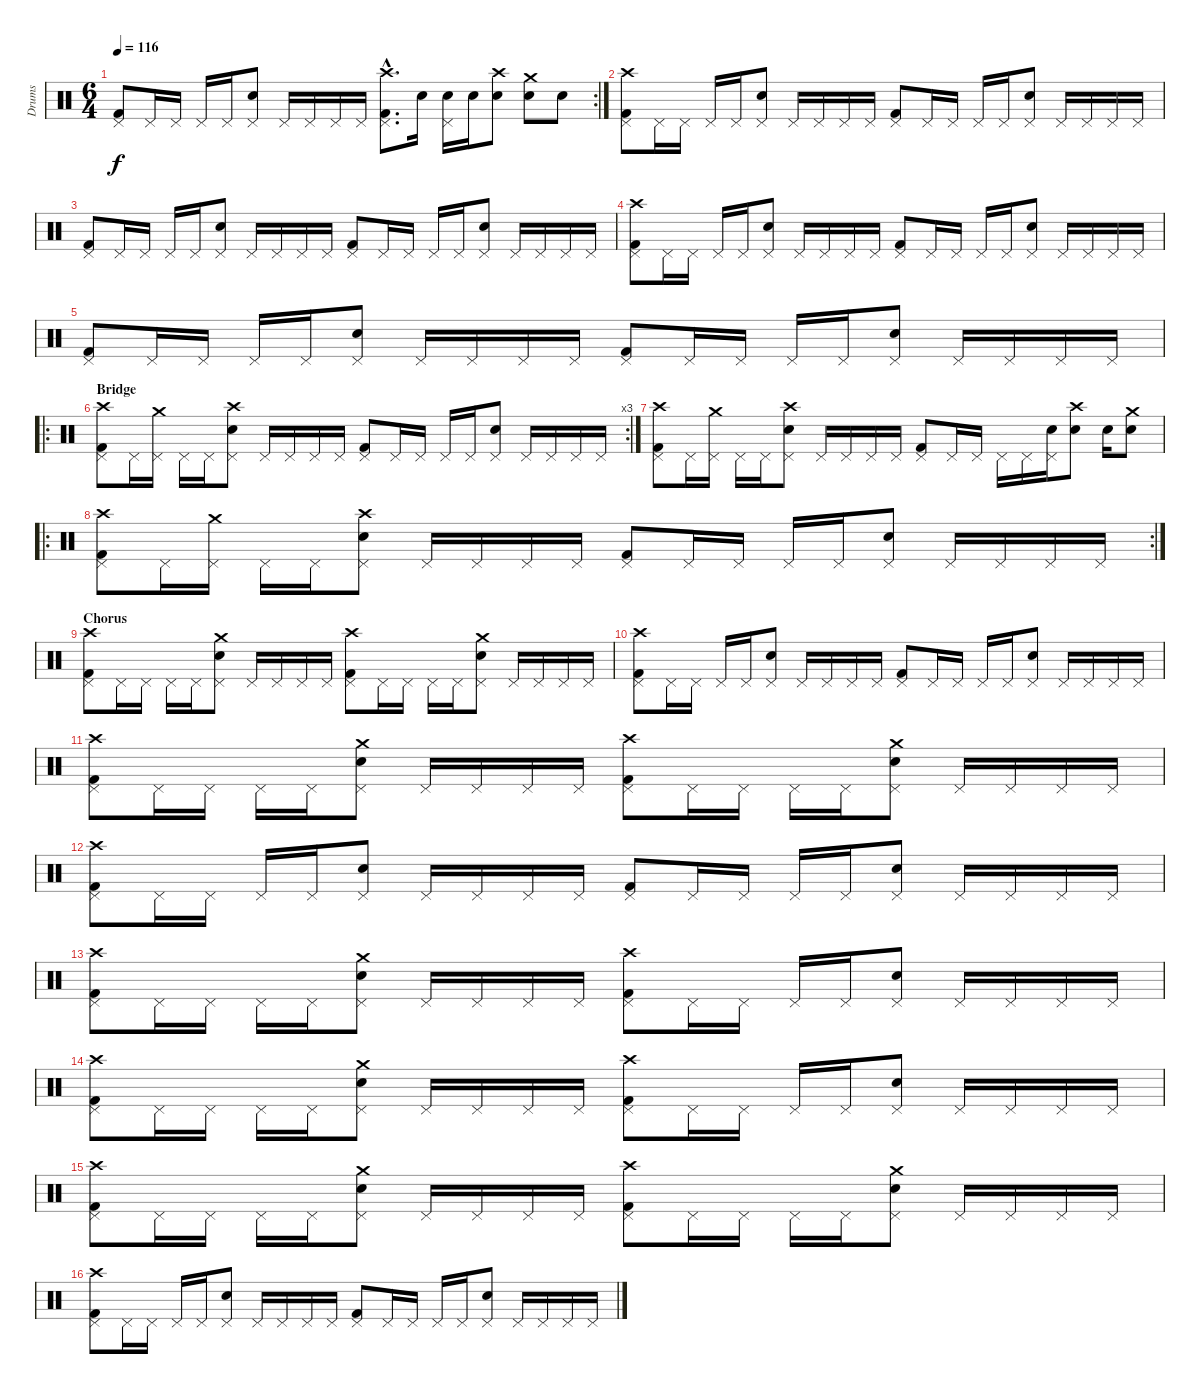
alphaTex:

\track ("Drums" "Drums") {instrument percussion}
\staff {score}
\articulation defaults
\rc 2
\ts (6 4)
\tempo 116
\clef neutral
\ks c
("Kick (hit) 2" "Pedal Hi-Hat (hit)").8{dy f} "Pedal Hi-Hat (hit)".16 "Pedal Hi-Hat (hit)".16 "Pedal Hi-Hat (hit)".16 "Pedal Hi-Hat (hit)".16 ("Snare (hit) 2" "Pedal Hi-Hat (hit)").8 "Pedal Hi-Hat (hit)".16 "Pedal Hi-Hat (hit)".16 "Pedal Hi-Hat (hit)".16 "Pedal Hi-Hat (hit)".16 ("Kick (hit) 2"{hac} "Pedal Hi-Hat (hit)"{hac} "Crash high (hit)"{hac}).8{d} "Snare (hit) 2".16 ("Snare (hit) 2" "Pedal Hi-Hat (hit)").16 "Snare (hit) 2".16 ("Snare (hit) 2" "Crash high (hit)").8 ("Snare (hit) 2" "Crash medium (hit)").8 "Snare (hit) 2".8 |
("Kick (hit) 2" "Pedal Hi-Hat (hit)" "Crash high (hit)").8 "Pedal Hi-Hat (hit)".16 "Pedal Hi-Hat (hit)".16 "Pedal Hi-Hat (hit)".16 "Pedal Hi-Hat (hit)".16 ("Snare (hit) 2" "Pedal Hi-Hat (hit)").8 "Pedal Hi-Hat (hit)".16 "Pedal Hi-Hat (hit)".16 "Pedal Hi-Hat (hit)".16 "Pedal Hi-Hat (hit)".16 ("Kick (hit) 2" "Pedal Hi-Hat (hit)").8 "Pedal Hi-Hat (hit)".16 "Pedal Hi-Hat (hit)".16 "Pedal Hi-Hat (hit)".16 "Pedal Hi-Hat (hit)".16 ("Snare (hit) 2" "Pedal Hi-Hat (hit)").8 "Pedal Hi-Hat (hit)".16 "Pedal Hi-Hat (hit)".16 "Pedal Hi-Hat (hit)".16 "Pedal Hi-Hat (hit)".16 |
("Kick (hit) 2" "Pedal Hi-Hat (hit)").8 "Pedal Hi-Hat (hit)".16 "Pedal Hi-Hat (hit)".16 "Pedal Hi-Hat (hit)".16 "Pedal Hi-Hat (hit)".16 ("Snare (hit) 2" "Pedal Hi-Hat (hit)").8 "Pedal Hi-Hat (hit)".16 "Pedal Hi-Hat (hit)".16 "Pedal Hi-Hat (hit)".16 "Pedal Hi-Hat (hit)".16 ("Kick (hit) 2" "Pedal Hi-Hat (hit)").8 "Pedal Hi-Hat (hit)".16 "Pedal Hi-Hat (hit)".16 "Pedal Hi-Hat (hit)".16 "Pedal Hi-Hat (hit)".16 ("Snare (hit) 2" "Pedal Hi-Hat (hit)").8 "Pedal Hi-Hat (hit)".16 "Pedal Hi-Hat (hit)".16 "Pedal Hi-Hat (hit)".16 "Pedal Hi-Hat (hit)".16 |
("Kick (hit) 2" "Pedal Hi-Hat (hit)" "Crash high (hit)").8 "Pedal Hi-Hat (hit)".16 "Pedal Hi-Hat (hit)".16 "Pedal Hi-Hat (hit)".16 "Pedal Hi-Hat (hit)".16 ("Snare (hit) 2" "Pedal Hi-Hat (hit)").8 "Pedal Hi-Hat (hit)".16 "Pedal Hi-Hat (hit)".16 "Pedal Hi-Hat (hit)".16 "Pedal Hi-Hat (hit)".16 ("Kick (hit) 2" "Pedal Hi-Hat (hit)").8 "Pedal Hi-Hat (hit)".16 "Pedal Hi-Hat (hit)".16 "Pedal Hi-Hat (hit)".16 "Pedal Hi-Hat (hit)".16 ("Snare (hit) 2" "Pedal Hi-Hat (hit)").8 "Pedal Hi-Hat (hit)".16 "Pedal Hi-Hat (hit)".16 "Pedal Hi-Hat (hit)".16 "Pedal Hi-Hat (hit)".16 |
("Kick (hit) 2" "Pedal Hi-Hat (hit)").8 "Pedal Hi-Hat (hit)".16 "Pedal Hi-Hat (hit)".16 "Pedal Hi-Hat (hit)".16 "Pedal Hi-Hat (hit)".16 ("Snare (hit) 2" "Pedal Hi-Hat (hit)").8 "Pedal Hi-Hat (hit)".16 "Pedal Hi-Hat (hit)".16 "Pedal Hi-Hat (hit)".16 "Pedal Hi-Hat (hit)".16 ("Kick (hit) 2" "Pedal Hi-Hat (hit)").8 "Pedal Hi-Hat (hit)".16 "Pedal Hi-Hat (hit)".16 "Pedal Hi-Hat (hit)".16 "Pedal Hi-Hat (hit)".16 ("Snare (hit) 2" "Pedal Hi-Hat (hit)").8 "Pedal Hi-Hat (hit)".16 "Pedal Hi-Hat (hit)".16 "Pedal Hi-Hat (hit)".16 "Pedal Hi-Hat (hit)".16 |
\ro
\rc 3
\section ("" "Bridge")
("Kick (hit) 2" "Pedal Hi-Hat (hit)" "Crash high (hit)").8 "Pedal Hi-Hat (hit)".16 ("Pedal Hi-Hat (hit)" "Crash medium (hit)").16 "Pedal Hi-Hat (hit)".16 "Pedal Hi-Hat (hit)".16 ("Snare (hit) 2" "Pedal Hi-Hat (hit)" "Crash high (hit)").8 "Pedal Hi-Hat (hit)".16 "Pedal Hi-Hat (hit)".16 "Pedal Hi-Hat (hit)".16 "Pedal Hi-Hat (hit)".16 ("Kick (hit) 2" "Pedal Hi-Hat (hit)").8 "Pedal Hi-Hat (hit)".16 "Pedal Hi-Hat (hit)".16 "Pedal Hi-Hat (hit)".16 "Pedal Hi-Hat (hit)".16 ("Snare (hit) 2" "Pedal Hi-Hat (hit)").8 "Pedal Hi-Hat (hit)".16 "Pedal Hi-Hat (hit)".16 "Pedal Hi-Hat (hit)".16 "Pedal Hi-Hat (hit)".16 |
("Kick (hit) 2" "Pedal Hi-Hat (hit)" "Crash high (hit)").8 "Pedal Hi-Hat (hit)".16 ("Pedal Hi-Hat (hit)" "Crash medium (hit)").16 "Pedal Hi-Hat (hit)".16 "Pedal Hi-Hat (hit)".16 ("Snare (hit) 2" "Pedal Hi-Hat (hit)" "Crash high (hit)").8 "Pedal Hi-Hat (hit)".16 "Pedal Hi-Hat (hit)".16 "Pedal Hi-Hat (hit)".16 "Pedal Hi-Hat (hit)".16 ("Kick (hit) 2" "Pedal Hi-Hat (hit)").8 "Pedal Hi-Hat (hit)".16 "Pedal Hi-Hat (hit)".16 "Pedal Hi-Hat (hit)".16 "Pedal Hi-Hat (hit)".16 ("Snare (hit) 2" "Pedal Hi-Hat (hit)").16 ("Snare (hit) 2" "Crash high (hit)").8 "Snare (hit) 2".16 ("Snare (hit) 2" "Crash medium (hit)").8 |
\ro
\rc 2
("Kick (hit) 2" "Pedal Hi-Hat (hit)" "Crash high (hit)").8 "Pedal Hi-Hat (hit)".16 ("Pedal Hi-Hat (hit)" "Crash medium (hit)").16 "Pedal Hi-Hat (hit)".16 "Pedal Hi-Hat (hit)".16 ("Snare (hit) 2" "Pedal Hi-Hat (hit)" "Crash high (hit)").8 "Pedal Hi-Hat (hit)".16 "Pedal Hi-Hat (hit)".16 "Pedal Hi-Hat (hit)".16 "Pedal Hi-Hat (hit)".16 ("Kick (hit) 2" "Pedal Hi-Hat (hit)").8 "Pedal Hi-Hat (hit)".16 "Pedal Hi-Hat (hit)".16 "Pedal Hi-Hat (hit)".16 "Pedal Hi-Hat (hit)".16 ("Snare (hit) 2" "Pedal Hi-Hat (hit)").8 "Pedal Hi-Hat (hit)".16 "Pedal Hi-Hat (hit)".16 "Pedal Hi-Hat (hit)".16 "Pedal Hi-Hat (hit)".16 |
\section ("" "Chorus")
("Kick (hit) 2" "Pedal Hi-Hat (hit)" "Crash high (hit)").8 "Pedal Hi-Hat (hit)".16 "Pedal Hi-Hat (hit)".16 "Pedal Hi-Hat (hit)".16 "Pedal Hi-Hat (hit)".16 ("Snare (hit) 2" "Pedal Hi-Hat (hit)" "Crash medium (hit)").8 "Pedal Hi-Hat (hit)".16 "Pedal Hi-Hat (hit)".16 "Pedal Hi-Hat (hit)".16 "Pedal Hi-Hat (hit)".16 ("Kick (hit) 2" "Pedal Hi-Hat (hit)" "Crash high (hit)").8 "Pedal Hi-Hat (hit)".16 "Pedal Hi-Hat (hit)".16 "Pedal Hi-Hat (hit)".16 "Pedal Hi-Hat (hit)".16 ("Snare (hit) 2" "Pedal Hi-Hat (hit)" "Crash medium (hit)").8 "Pedal Hi-Hat (hit)".16 "Pedal Hi-Hat (hit)".16 "Pedal Hi-Hat (hit)".16 "Pedal Hi-Hat (hit)".16 |
("Kick (hit) 2" "Pedal Hi-Hat (hit)" "Crash high (hit)").8 "Pedal Hi-Hat (hit)".16 "Pedal Hi-Hat (hit)".16 "Pedal Hi-Hat (hit)".16 "Pedal Hi-Hat (hit)".16 ("Snare (hit) 2" "Pedal Hi-Hat (hit)").8 "Pedal Hi-Hat (hit)".16 "Pedal Hi-Hat (hit)".16 "Pedal Hi-Hat (hit)".16 "Pedal Hi-Hat (hit)".16 ("Kick (hit) 2" "Pedal Hi-Hat (hit)").8 "Pedal Hi-Hat (hit)".16 "Pedal Hi-Hat (hit)".16 "Pedal Hi-Hat (hit)".16 "Pedal Hi-Hat (hit)".16 ("Snare (hit) 2" "Pedal Hi-Hat (hit)").8 "Pedal Hi-Hat (hit)".16 "Pedal Hi-Hat (hit)".16 "Pedal Hi-Hat (hit)".16 "Pedal Hi-Hat (hit)".16 |
("Kick (hit) 2" "Pedal Hi-Hat (hit)" "Crash high (hit)").8 "Pedal Hi-Hat (hit)".16 "Pedal Hi-Hat (hit)".16 "Pedal Hi-Hat (hit)".16 "Pedal Hi-Hat (hit)".16 ("Snare (hit) 2" "Pedal Hi-Hat (hit)" "Crash medium (hit)").8 "Pedal Hi-Hat (hit)".16 "Pedal Hi-Hat (hit)".16 "Pedal Hi-Hat (hit)".16 "Pedal Hi-Hat (hit)".16 ("Kick (hit) 2" "Pedal Hi-Hat (hit)" "Crash high (hit)").8 "Pedal Hi-Hat (hit)".16 "Pedal Hi-Hat (hit)".16 "Pedal Hi-Hat (hit)".16 "Pedal Hi-Hat (hit)".16 ("Snare (hit) 2" "Pedal Hi-Hat (hit)" "Crash medium (hit)").8 "Pedal Hi-Hat (hit)".16 "Pedal Hi-Hat (hit)".16 "Pedal Hi-Hat (hit)".16 "Pedal Hi-Hat (hit)".16 |
("Kick (hit) 2" "Pedal Hi-Hat (hit)" "Crash high (hit)").8 "Pedal Hi-Hat (hit)".16 "Pedal Hi-Hat (hit)".16 "Pedal Hi-Hat (hit)".16 "Pedal Hi-Hat (hit)".16 ("Snare (hit) 2" "Pedal Hi-Hat (hit)").8 "Pedal Hi-Hat (hit)".16 "Pedal Hi-Hat (hit)".16 "Pedal Hi-Hat (hit)".16 "Pedal Hi-Hat (hit)".16 ("Kick (hit) 2" "Pedal Hi-Hat (hit)").8 "Pedal Hi-Hat (hit)".16 "Pedal Hi-Hat (hit)".16 "Pedal Hi-Hat (hit)".16 "Pedal Hi-Hat (hit)".16 ("Snare (hit) 2" "Pedal Hi-Hat (hit)").8 "Pedal Hi-Hat (hit)".16 "Pedal Hi-Hat (hit)".16 "Pedal Hi-Hat (hit)".16 "Pedal Hi-Hat (hit)".16 |
("Kick (hit) 2" "Pedal Hi-Hat (hit)" "Crash high (hit)").8 "Pedal Hi-Hat (hit)".16 "Pedal Hi-Hat (hit)".16 "Pedal Hi-Hat (hit)".16 "Pedal Hi-Hat (hit)".16 ("Snare (hit) 2" "Pedal Hi-Hat (hit)" "Crash medium (hit)").8 "Pedal Hi-Hat (hit)".16 "Pedal Hi-Hat (hit)".16 "Pedal Hi-Hat (hit)".16 "Pedal Hi-Hat (hit)".16 ("Kick (hit) 2" "Pedal Hi-Hat (hit)" "Crash high (hit)").8 "Pedal Hi-Hat (hit)".16 "Pedal Hi-Hat (hit)".16 "Pedal Hi-Hat (hit)".16 "Pedal Hi-Hat (hit)".16 ("Snare (hit) 2" "Pedal Hi-Hat (hit)").8 "Pedal Hi-Hat (hit)".16 "Pedal Hi-Hat (hit)".16 "Pedal Hi-Hat (hit)".16 "Pedal Hi-Hat (hit)".16 |
("Kick (hit) 2" "Pedal Hi-Hat (hit)" "Crash high (hit)").8 "Pedal Hi-Hat (hit)".16 "Pedal Hi-Hat (hit)".16 "Pedal Hi-Hat (hit)".16 "Pedal Hi-Hat (hit)".16 ("Snare (hit) 2" "Pedal Hi-Hat (hit)" "Crash medium (hit)").8 "Pedal Hi-Hat (hit)".16 "Pedal Hi-Hat (hit)".16 "Pedal Hi-Hat (hit)".16 "Pedal Hi-Hat (hit)".16 ("Kick (hit) 2" "Pedal Hi-Hat (hit)" "Crash high (hit)").8 "Pedal Hi-Hat (hit)".16 "Pedal Hi-Hat (hit)".16 "Pedal Hi-Hat (hit)".16 "Pedal Hi-Hat (hit)".16 ("Snare (hit) 2" "Pedal Hi-Hat (hit)").8 "Pedal Hi-Hat (hit)".16 "Pedal Hi-Hat (hit)".16 "Pedal Hi-Hat (hit)".16 "Pedal Hi-Hat (hit)".16 |
("Kick (hit) 2" "Pedal Hi-Hat (hit)" "Crash high (hit)").8 "Pedal Hi-Hat (hit)".16 "Pedal Hi-Hat (hit)".16 "Pedal Hi-Hat (hit)".16 "Pedal Hi-Hat (hit)".16 ("Snare (hit) 2" "Pedal Hi-Hat (hit)" "Crash medium (hit)").8 "Pedal Hi-Hat (hit)".16 "Pedal Hi-Hat (hit)".16 "Pedal Hi-Hat (hit)".16 "Pedal Hi-Hat (hit)".16 ("Kick (hit) 2" "Pedal Hi-Hat (hit)" "Crash high (hit)").8 "Pedal Hi-Hat (hit)".16 "Pedal Hi-Hat (hit)".16 "Pedal Hi-Hat (hit)".16 "Pedal Hi-Hat (hit)".16 ("Snare (hit) 2" "Pedal Hi-Hat (hit)" "Crash medium (hit)").8 "Pedal Hi-Hat (hit)".16 "Pedal Hi-Hat (hit)".16 "Pedal Hi-Hat (hit)".16 "Pedal Hi-Hat (hit)".16 |
("Kick (hit) 2" "Pedal Hi-Hat (hit)" "Crash high (hit)").8 "Pedal Hi-Hat (hit)".16 "Pedal Hi-Hat (hit)".16 "Pedal Hi-Hat (hit)".16 "Pedal Hi-Hat (hit)".16 ("Snare (hit) 2" "Pedal Hi-Hat (hit)").8 "Pedal Hi-Hat (hit)".16 "Pedal Hi-Hat (hit)".16 "Pedal Hi-Hat (hit)".16 "Pedal Hi-Hat (hit)".16 ("Kick (hit) 2" "Pedal Hi-Hat (hit)").8 "Pedal Hi-Hat (hit)".16 "Pedal Hi-Hat (hit)".16 "Pedal Hi-Hat (hit)".16 "Pedal Hi-Hat (hit)".16 ("Snare (hit) 2" "Pedal Hi-Hat (hit)").8 "Pedal Hi-Hat (hit)".16 "Pedal Hi-Hat (hit)".16 "Pedal Hi-Hat (hit)".16 "Pedal Hi-Hat (hit)".16
